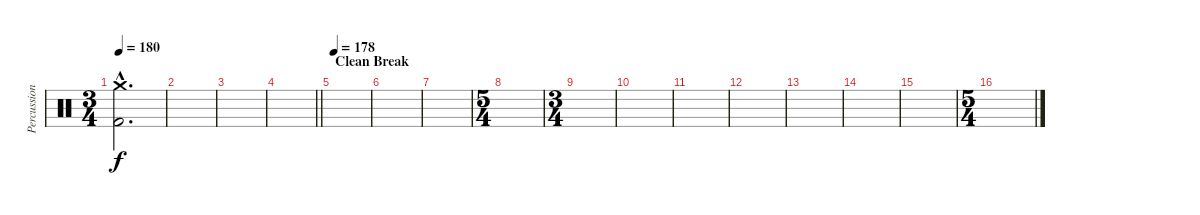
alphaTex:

\track ("Percussion" "Percussion") {instrument percussion}
\staff {score}
\articulation defaults
\ts (3 4)
\tempo 180
\clef neutral
\ks c
("Crash medium (hit)"{hac} "Kick (hit) 2"{hac}).2{d dy f} |
|
|
\barLineRight lightlight
|
\section ("" "Clean Break")
\tempo 178
|
|
|
\ts (5 4)
|
\ts (3 4)
|
|
|
|
|
|
|
\ts (5 4)
